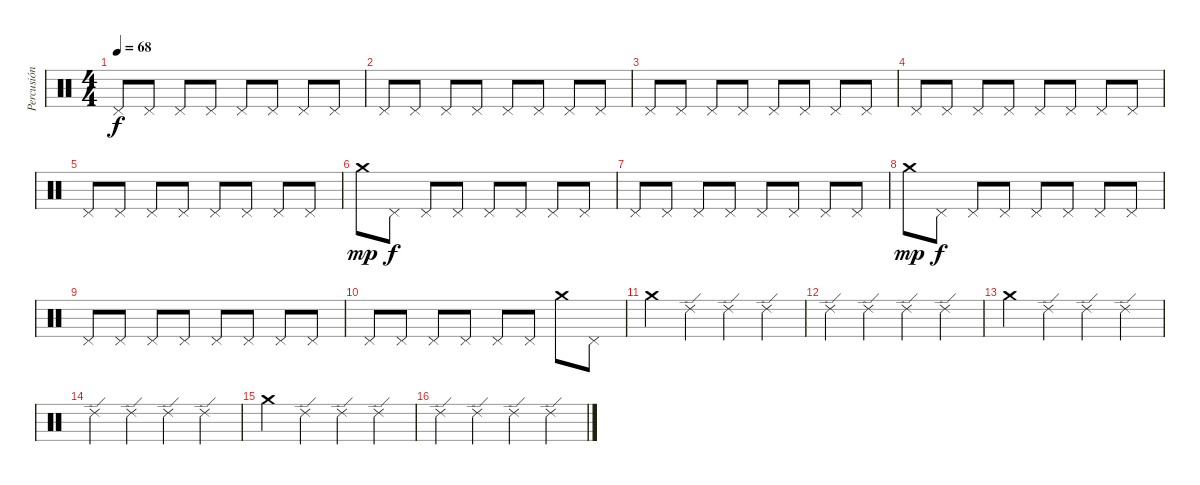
\track ("Percusión" "Percusión") {instrument percussion}
\staff {score}
\articulation defaults
\ts (4 4)
\tempo 68
\clef neutral
\ks c "Pedal Hi-Hat (hit)".8{dy f} "Pedal Hi-Hat (hit)".8 "Pedal Hi-Hat (hit)".8 "Pedal Hi-Hat (hit)".8 "Pedal Hi-Hat (hit)".8 "Pedal Hi-Hat (hit)".8 "Pedal Hi-Hat (hit)".8 "Pedal Hi-Hat (hit)".8
|
"Pedal Hi-Hat (hit)".8 "Pedal Hi-Hat (hit)".8 "Pedal Hi-Hat (hit)".8 "Pedal Hi-Hat (hit)".8 "Pedal Hi-Hat (hit)".8 "Pedal Hi-Hat (hit)".8 "Pedal Hi-Hat (hit)".8 "Pedal Hi-Hat (hit)".8 |
"Pedal Hi-Hat (hit)".8 "Pedal Hi-Hat (hit)".8 "Pedal Hi-Hat (hit)".8 "Pedal Hi-Hat (hit)".8 "Pedal Hi-Hat (hit)".8 "Pedal Hi-Hat (hit)".8 "Pedal Hi-Hat (hit)".8 "Pedal Hi-Hat (hit)".8 |
"Pedal Hi-Hat (hit)".8 "Pedal Hi-Hat (hit)".8 "Pedal Hi-Hat (hit)".8 "Pedal Hi-Hat (hit)".8 "Pedal Hi-Hat (hit)".8 "Pedal Hi-Hat (hit)".8 "Pedal Hi-Hat (hit)".8 "Pedal Hi-Hat (hit)".8 |
"Pedal Hi-Hat (hit)".8 "Pedal Hi-Hat (hit)".8 "Pedal Hi-Hat (hit)".8 "Pedal Hi-Hat (hit)".8 "Pedal Hi-Hat (hit)".8 "Pedal Hi-Hat (hit)".8 "Pedal Hi-Hat (hit)".8 "Pedal Hi-Hat (hit)".8 |
"Crash medium (hit)".8{dy mp} "Pedal Hi-Hat (hit)".8{dy f} "Pedal Hi-Hat (hit)".8 "Pedal Hi-Hat (hit)".8 "Pedal Hi-Hat (hit)".8 "Pedal Hi-Hat (hit)".8 "Pedal Hi-Hat (hit)".8 "Pedal Hi-Hat (hit)".8 |
"Pedal Hi-Hat (hit)".8 "Pedal Hi-Hat (hit)".8 "Pedal Hi-Hat (hit)".8 "Pedal Hi-Hat (hit)".8 "Pedal Hi-Hat (hit)".8 "Pedal Hi-Hat (hit)".8 "Pedal Hi-Hat (hit)".8 "Pedal Hi-Hat (hit)".8 |
"Crash medium (hit)".8{dy mp} "Pedal Hi-Hat (hit)".8{dy f} "Pedal Hi-Hat (hit)".8 "Pedal Hi-Hat (hit)".8 "Pedal Hi-Hat (hit)".8 "Pedal Hi-Hat (hit)".8 "Pedal Hi-Hat (hit)".8 "Pedal Hi-Hat (hit)".8 |
"Pedal Hi-Hat (hit)".8 "Pedal Hi-Hat (hit)".8 "Pedal Hi-Hat (hit)".8 "Pedal Hi-Hat (hit)".8 "Pedal Hi-Hat (hit)".8 "Pedal Hi-Hat (hit)".8 "Pedal Hi-Hat (hit)".8 "Pedal Hi-Hat (hit)".8 |
"Pedal Hi-Hat (hit)".8 "Pedal Hi-Hat (hit)".8 "Pedal Hi-Hat (hit)".8 "Pedal Hi-Hat (hit)".8 "Pedal Hi-Hat (hit)".8 "Pedal Hi-Hat (hit)".8 "Crash medium (hit)".8 "Pedal Hi-Hat (hit)".8 |
"Crash medium (hit)".4 "Ride (edge) 2".4 "Ride (edge) 2".4 "Ride (edge) 2".4 |
"Ride (edge) 2".4 "Ride (edge) 2".4 "Ride (edge) 2".4 "Ride (edge) 2".4 |
"Crash medium (hit)".4 "Ride (edge) 2".4 "Ride (edge) 2".4 "Ride (edge) 2".4 |
"Ride (edge) 2".4 "Ride (edge) 2".4 "Ride (edge) 2".4 "Ride (edge) 2".4 |
"Crash medium (hit)".4 "Ride (edge) 2".4 "Ride (edge) 2".4 "Ride (edge) 2".4 |
"Ride (edge) 2".4 "Ride (edge) 2".4 "Ride (edge) 2".4 "Ride (edge) 2".4
